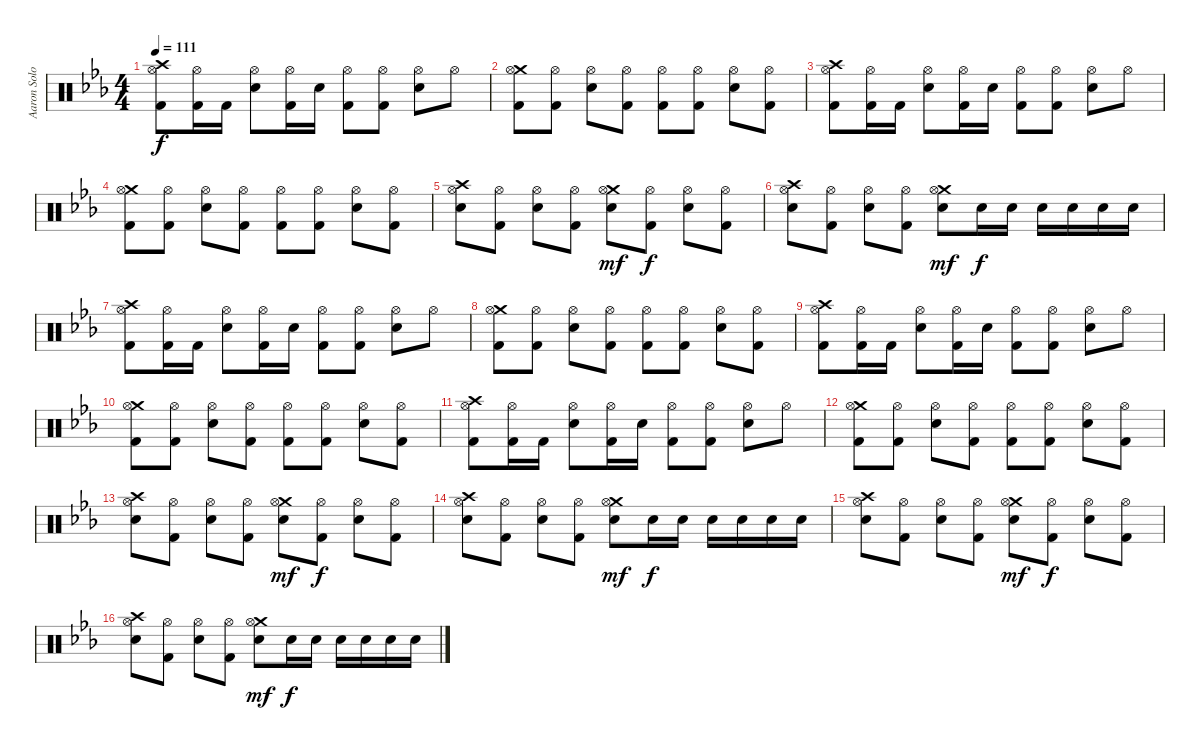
\track ("Aaron Solowoniuk (Drums)" "Aaron Solo") {instrument percussion}
\staff {score}
\articulation defaults
\ts (4 4)
\tempo 111
\clef neutral
\ks cminor
("Crash high (hit)" "Hi-Hat (open)" "Kick (hit) 2").8{dy f} ("Hi-Hat (open)" "Kick (hit) 2").16 "Kick (hit) 2".16 ("Hi-Hat (open)" "Snare (hit) 2").8 ("Hi-Hat (open)" "Kick (hit) 2").16 "Snare (hit) 2".16 ("Hi-Hat (open)" "Kick (hit) 2").8 ("Hi-Hat (open)" "Kick (hit) 2").8 ("Hi-Hat (open)" "Snare (hit) 2").8 "Hi-Hat (open)".8 |
("Crash medium (hit)" "Hi-Hat (open)" "Kick (hit) 2").8 ("Hi-Hat (open)" "Kick (hit) 2").8 ("Hi-Hat (open)" "Snare (hit) 2").8 ("Hi-Hat (open)" "Kick (hit) 2").8 ("Hi-Hat (open)" "Kick (hit) 2").8 ("Hi-Hat (open)" "Kick (hit) 2").8 ("Hi-Hat (open)" "Snare (hit) 2").8 ("Hi-Hat (open)" "Kick (hit) 2").8 |
("Crash high (hit)" "Hi-Hat (open)" "Kick (hit) 2").8 ("Hi-Hat (open)" "Kick (hit) 2").16 "Kick (hit) 2".16 ("Hi-Hat (open)" "Snare (hit) 2").8 ("Hi-Hat (open)" "Kick (hit) 2").16 "Snare (hit) 2".16 ("Hi-Hat (open)" "Kick (hit) 2").8 ("Hi-Hat (open)" "Kick (hit) 2").8 ("Hi-Hat (open)" "Snare (hit) 2").8 "Hi-Hat (open)".8 |
("Crash medium (hit)" "Hi-Hat (open)" "Kick (hit) 2").8 ("Hi-Hat (open)" "Kick (hit) 2").8 ("Hi-Hat (open)" "Snare (hit) 2").8 ("Hi-Hat (open)" "Kick (hit) 2").8 ("Hi-Hat (open)" "Kick (hit) 2").8 ("Hi-Hat (open)" "Kick (hit) 2").8 ("Hi-Hat (open)" "Snare (hit) 2").8 ("Hi-Hat (open)" "Kick (hit) 2").8 |
("Crash high (hit)" "Hi-Hat (open)" "Snare (hit) 2").8 ("Hi-Hat (open)" "Kick (hit) 2").8 ("Hi-Hat (open)" "Snare (hit) 2").8 ("Hi-Hat (open)" "Kick (hit) 2").8 ("Crash medium (hit)" "Hi-Hat (open)" "Snare (hit) 2").8{dy mf} ("Hi-Hat (open)" "Kick (hit) 2").8{dy f} ("Hi-Hat (open)" "Snare (hit) 2").8 ("Hi-Hat (open)" "Kick (hit) 2").8 |
("Crash high (hit)" "Hi-Hat (open)" "Snare (hit) 2").8 ("Hi-Hat (open)" "Kick (hit) 2").8 ("Hi-Hat (open)" "Snare (hit) 2").8 ("Hi-Hat (open)" "Kick (hit) 2").8 ("Crash medium (hit)" "Hi-Hat (open)" "Snare (hit) 2").8{dy mf} "Snare (hit) 2".16{dy f} "Snare (hit) 2".16 "Snare (hit) 2".16 "Snare (hit) 2".16 "Snare (hit) 2".16 "Snare (hit) 2".16 |
("Crash high (hit)" "Hi-Hat (open)" "Kick (hit) 2").8 ("Hi-Hat (open)" "Kick (hit) 2").16 "Kick (hit) 2".16 ("Hi-Hat (open)" "Snare (hit) 2").8 ("Hi-Hat (open)" "Kick (hit) 2").16 "Snare (hit) 2".16 ("Hi-Hat (open)" "Kick (hit) 2").8 ("Hi-Hat (open)" "Kick (hit) 2").8 ("Hi-Hat (open)" "Snare (hit) 2").8 "Hi-Hat (open)".8 |
("Crash medium (hit)" "Hi-Hat (open)" "Kick (hit) 2").8 ("Hi-Hat (open)" "Kick (hit) 2").8 ("Hi-Hat (open)" "Snare (hit) 2").8 ("Hi-Hat (open)" "Kick (hit) 2").8 ("Hi-Hat (open)" "Kick (hit) 2").8 ("Hi-Hat (open)" "Kick (hit) 2").8 ("Hi-Hat (open)" "Snare (hit) 2").8 ("Hi-Hat (open)" "Kick (hit) 2").8 |
("Crash high (hit)" "Hi-Hat (open)" "Kick (hit) 2").8 ("Hi-Hat (open)" "Kick (hit) 2").16 "Kick (hit) 2".16 ("Hi-Hat (open)" "Snare (hit) 2").8 ("Hi-Hat (open)" "Kick (hit) 2").16 "Snare (hit) 2".16 ("Hi-Hat (open)" "Kick (hit) 2").8 ("Hi-Hat (open)" "Kick (hit) 2").8 ("Hi-Hat (open)" "Snare (hit) 2").8 "Hi-Hat (open)".8 |
("Crash medium (hit)" "Hi-Hat (open)" "Kick (hit) 2").8 ("Hi-Hat (open)" "Kick (hit) 2").8 ("Hi-Hat (open)" "Snare (hit) 2").8 ("Hi-Hat (open)" "Kick (hit) 2").8 ("Hi-Hat (open)" "Kick (hit) 2").8 ("Hi-Hat (open)" "Kick (hit) 2").8 ("Hi-Hat (open)" "Snare (hit) 2").8 ("Hi-Hat (open)" "Kick (hit) 2").8 |
("Crash high (hit)" "Hi-Hat (open)" "Kick (hit) 2").8 ("Hi-Hat (open)" "Kick (hit) 2").16 "Kick (hit) 2".16 ("Hi-Hat (open)" "Snare (hit) 2").8 ("Hi-Hat (open)" "Kick (hit) 2").16 "Snare (hit) 2".16 ("Hi-Hat (open)" "Kick (hit) 2").8 ("Hi-Hat (open)" "Kick (hit) 2").8 ("Hi-Hat (open)" "Snare (hit) 2").8 "Hi-Hat (open)".8 |
("Crash medium (hit)" "Hi-Hat (open)" "Kick (hit) 2").8 ("Hi-Hat (open)" "Kick (hit) 2").8 ("Hi-Hat (open)" "Snare (hit) 2").8 ("Hi-Hat (open)" "Kick (hit) 2").8 ("Hi-Hat (open)" "Kick (hit) 2").8 ("Hi-Hat (open)" "Kick (hit) 2").8 ("Hi-Hat (open)" "Snare (hit) 2").8 ("Hi-Hat (open)" "Kick (hit) 2").8 |
("Crash high (hit)" "Hi-Hat (open)" "Snare (hit) 2").8 ("Hi-Hat (open)" "Kick (hit) 2").8 ("Hi-Hat (open)" "Snare (hit) 2").8 ("Hi-Hat (open)" "Kick (hit) 2").8 ("Crash medium (hit)" "Hi-Hat (open)" "Snare (hit) 2").8{dy mf} ("Hi-Hat (open)" "Kick (hit) 2").8{dy f} ("Hi-Hat (open)" "Snare (hit) 2").8 ("Hi-Hat (open)" "Kick (hit) 2").8 |
("Crash high (hit)" "Hi-Hat (open)" "Snare (hit) 2").8 ("Hi-Hat (open)" "Kick (hit) 2").8 ("Hi-Hat (open)" "Snare (hit) 2").8 ("Hi-Hat (open)" "Kick (hit) 2").8 ("Crash medium (hit)" "Hi-Hat (open)" "Snare (hit) 2").8{dy mf} "Snare (hit) 2".16{dy f} "Snare (hit) 2".16 "Snare (hit) 2".16 "Snare (hit) 2".16 "Snare (hit) 2".16 "Snare (hit) 2".16 |
("Crash high (hit)" "Hi-Hat (open)" "Snare (hit) 2").8 ("Hi-Hat (open)" "Kick (hit) 2").8 ("Hi-Hat (open)" "Snare (hit) 2").8 ("Hi-Hat (open)" "Kick (hit) 2").8 ("Crash medium (hit)" "Hi-Hat (open)" "Snare (hit) 2").8{dy mf} ("Hi-Hat (open)" "Kick (hit) 2").8{dy f} ("Hi-Hat (open)" "Snare (hit) 2").8 ("Hi-Hat (open)" "Kick (hit) 2").8 |
("Crash high (hit)" "Hi-Hat (open)" "Snare (hit) 2").8 ("Hi-Hat (open)" "Kick (hit) 2").8 ("Hi-Hat (open)" "Snare (hit) 2").8 ("Hi-Hat (open)" "Kick (hit) 2").8 ("Crash medium (hit)" "Hi-Hat (open)" "Snare (hit) 2").8{dy mf} "Snare (hit) 2".16{dy f} "Snare (hit) 2".16 "Snare (hit) 2".16 "Snare (hit) 2".16 "Snare (hit) 2".16 "Snare (hit) 2".16
